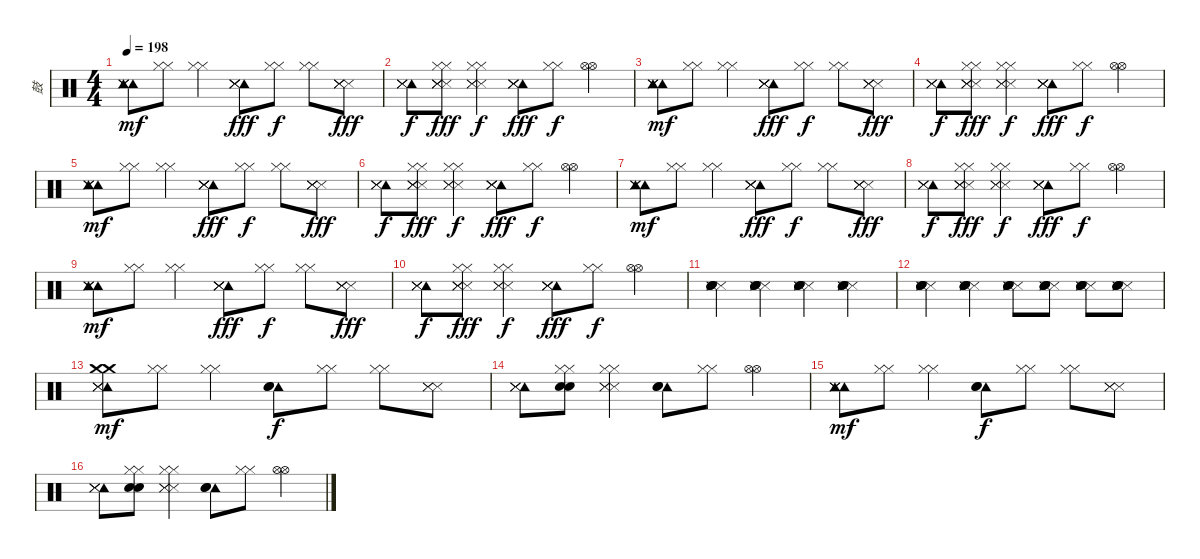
\track ("鼓" "鼓") {instrument percussion}
\staff {score}
\articulation defaults
\ts (4 4)
\tempo 198
\clef neutral
\ks c
("Tambourine (hit)" "Tambourine (hit)" "Metronome (hit)" "Metronome (hit)" "Metronome (hit)").8{dy mf} ("Hi-Hat (closed)" "Hi-Hat (closed)").8 ("Hi-Hat (closed)" "Hi-Hat (closed)").4 ("Tambourine (hit)" "Snare (side stick) 3" "Snare (side stick) 3" "Snare (side stick) 3" "Snare (side stick) 3").8{dy fff} ("Hi-Hat (closed)" "Hi-Hat (closed)").8{dy f} ("Hi-Hat (closed)" "Hi-Hat (closed)").8 ("Snare (side stick) 3" "Snare (side stick) 3" "Snare (side stick) 3" "Snare (side stick) 3").8{dy fff} |
("Tambourine (hit)" "Metronome (hit)" "Metronome (hit)" "Metronome (hit)").8{dy f} ("Hi-Hat (closed)" "Hi-Hat (closed)" "Snare (side stick) 3" "Snare (side stick) 3" "Snare (side stick) 3" "Snare (side stick) 3").8{dy fff} ("Hi-Hat (closed)" "Hi-Hat (closed)" "Metronome (hit)" "Metronome (hit)" "Metronome (hit)").4{dy f} ("Tambourine (hit)" "Snare (side stick) 3" "Snare (side stick) 3" "Snare (side stick) 3" "Snare (side stick) 3").8{dy fff} ("Hi-Hat (closed)" "Hi-Hat (closed)").8{dy f} ("Hi-Hat (open)" "Hi-Hat (open)").4 |
("Tambourine (hit)" "Tambourine (hit)" "Metronome (hit)" "Metronome (hit)" "Metronome (hit)").8{dy mf} ("Hi-Hat (closed)" "Hi-Hat (closed)").8 ("Hi-Hat (closed)" "Hi-Hat (closed)").4 ("Tambourine (hit)" "Snare (side stick) 3" "Snare (side stick) 3" "Snare (side stick) 3" "Snare (side stick) 3").8{dy fff} ("Hi-Hat (closed)" "Hi-Hat (closed)").8{dy f} ("Hi-Hat (closed)" "Hi-Hat (closed)").8 ("Snare (side stick) 3" "Snare (side stick) 3" "Snare (side stick) 3" "Snare (side stick) 3").8{dy fff} |
("Tambourine (hit)" "Metronome (hit)" "Metronome (hit)" "Metronome (hit)").8{dy f} ("Hi-Hat (closed)" "Hi-Hat (closed)" "Snare (side stick) 3" "Snare (side stick) 3" "Snare (side stick) 3" "Snare (side stick) 3").8{dy fff} ("Hi-Hat (closed)" "Hi-Hat (closed)" "Metronome (hit)" "Metronome (hit)" "Metronome (hit)").4{dy f} ("Tambourine (hit)" "Snare (side stick) 3" "Snare (side stick) 3" "Snare (side stick) 3" "Snare (side stick) 3").8{dy fff} ("Hi-Hat (closed)" "Hi-Hat (closed)").8{dy f} ("Hi-Hat (open)" "Hi-Hat (open)").4 |
("Tambourine (hit)" "Tambourine (hit)" "Metronome (hit)" "Metronome (hit)" "Metronome (hit)").8{dy mf} ("Hi-Hat (closed)" "Hi-Hat (closed)").8 ("Hi-Hat (closed)" "Hi-Hat (closed)").4 ("Tambourine (hit)" "Snare (side stick) 3" "Snare (side stick) 3" "Snare (side stick) 3" "Snare (side stick) 3").8{dy fff} ("Hi-Hat (closed)" "Hi-Hat (closed)").8{dy f} ("Hi-Hat (closed)" "Hi-Hat (closed)").8 ("Snare (side stick) 3" "Snare (side stick) 3" "Snare (side stick) 3" "Snare (side stick) 3").8{dy fff} |
("Tambourine (hit)" "Metronome (hit)" "Metronome (hit)" "Metronome (hit)").8{dy f} ("Hi-Hat (closed)" "Hi-Hat (closed)" "Snare (side stick) 3" "Snare (side stick) 3" "Snare (side stick) 3" "Snare (side stick) 3").8{dy fff} ("Hi-Hat (closed)" "Hi-Hat (closed)" "Metronome (hit)" "Metronome (hit)" "Metronome (hit)").4{dy f} ("Tambourine (hit)" "Snare (side stick) 3" "Snare (side stick) 3" "Snare (side stick) 3" "Snare (side stick) 3").8{dy fff} ("Hi-Hat (closed)" "Hi-Hat (closed)").8{dy f} ("Hi-Hat (open)" "Hi-Hat (open)").4 |
("Tambourine (hit)" "Tambourine (hit)" "Metronome (hit)" "Metronome (hit)" "Metronome (hit)").8{dy mf} ("Hi-Hat (closed)" "Hi-Hat (closed)").8 ("Hi-Hat (closed)" "Hi-Hat (closed)").4 ("Tambourine (hit)" "Snare (side stick) 3" "Snare (side stick) 3" "Snare (side stick) 3" "Snare (side stick) 3").8{dy fff} ("Hi-Hat (closed)" "Hi-Hat (closed)").8{dy f} ("Hi-Hat (closed)" "Hi-Hat (closed)").8 ("Snare (side stick) 3" "Snare (side stick) 3" "Snare (side stick) 3" "Snare (side stick) 3").8{dy fff} |
("Tambourine (hit)" "Metronome (hit)" "Metronome (hit)" "Metronome (hit)").8{dy f} ("Hi-Hat (closed)" "Hi-Hat (closed)" "Snare (side stick) 3" "Snare (side stick) 3" "Snare (side stick) 3" "Snare (side stick) 3").8{dy fff} ("Hi-Hat (closed)" "Hi-Hat (closed)" "Metronome (hit)" "Metronome (hit)" "Metronome (hit)").4{dy f} ("Tambourine (hit)" "Snare (side stick) 3" "Snare (side stick) 3" "Snare (side stick) 3" "Snare (side stick) 3").8{dy fff} ("Hi-Hat (closed)" "Hi-Hat (closed)").8{dy f} ("Hi-Hat (open)" "Hi-Hat (open)").4 |
("Tambourine (hit)" "Tambourine (hit)" "Metronome (hit)" "Metronome (hit)" "Metronome (hit)").8{dy mf} ("Hi-Hat (closed)" "Hi-Hat (closed)").8 ("Hi-Hat (closed)" "Hi-Hat (closed)").4 ("Tambourine (hit)" "Snare (side stick) 3" "Snare (side stick) 3" "Snare (side stick) 3" "Snare (side stick) 3").8{dy fff} ("Hi-Hat (closed)" "Hi-Hat (closed)").8{dy f} ("Hi-Hat (closed)" "Hi-Hat (closed)").8 ("Snare (side stick) 3" "Snare (side stick) 3" "Snare (side stick) 3" "Snare (side stick) 3").8{dy fff} |
("Tambourine (hit)" "Metronome (hit)" "Metronome (hit)" "Metronome (hit)").8{dy f} ("Hi-Hat (closed)" "Hi-Hat (closed)" "Snare (side stick) 3" "Snare (side stick) 3" "Snare (side stick) 3" "Snare (side stick) 3").8{dy fff} ("Hi-Hat (closed)" "Hi-Hat (closed)" "Metronome (hit)" "Metronome (hit)" "Metronome (hit)").4{dy f} ("Tambourine (hit)" "Snare (side stick) 3" "Snare (side stick) 3" "Snare (side stick) 3" "Snare (side stick) 3").8{dy fff} ("Hi-Hat (closed)" "Hi-Hat (closed)").8{dy f} ("Hi-Hat (open)" "Hi-Hat (open)").4 |
("Metronome (hit)" "Metronome (hit)" "Metronome (bell)" "Snare (hit) 2" "Metronome (hit)" "Metronome (bell)").4 ("Metronome (hit)" "Metronome (hit)" "Metronome (bell)" "Snare (hit) 2" "Metronome (hit)" "Metronome (bell)").4 ("Metronome (hit)" "Metronome (hit)" "Metronome (bell)" "Snare (hit) 2" "Metronome (hit)" "Metronome (bell)").4 ("Metronome (hit)" "Metronome (hit)" "Metronome (bell)" "Snare (hit) 2" "Metronome (hit)" "Metronome (bell)").4 |
("Metronome (hit)" "Metronome (hit)" "Metronome (bell)" "Snare (hit) 2" "Metronome (hit)" "Metronome (bell)").4 ("Metronome (hit)" "Metronome (hit)" "Metronome (bell)" "Snare (hit) 2" "Metronome (hit)" "Metronome (bell)").4 ("Metronome (hit)" "Metronome (hit)" "Metronome (bell)" "Snare (hit) 2" "Metronome (hit)" "Metronome (bell)").8 ("Metronome (hit)" "Metronome (hit)" "Metronome (bell)" "Snare (hit) 2" "Metronome (hit)" "Metronome (bell)").8 ("Metronome (hit)" "Metronome (hit)" "Metronome (bell)" "Snare (hit) 2" "Metronome (hit)" "Metronome (bell)").8 ("Metronome (hit)" "Metronome (hit)" "Metronome (bell)" "Snare (hit) 2" "Metronome (hit)" "Metronome (bell)").8 |
("Crash medium (hit)" "Tambourine (hit)" "Metronome (hit)" "Metronome (hit)" "Metronome (hit)" "Crash medium (hit)").8{dy mf} ("Hi-Hat (closed)" "Hi-Hat (closed)").8 ("Hi-Hat (closed)" "Hi-Hat (closed)").4 ("Tambourine (hit)" "Metronome (bell)" "Metronome (bell)").8{dy f} ("Hi-Hat (closed)" "Hi-Hat (closed)").8 ("Hi-Hat (closed)" "Hi-Hat (closed)").8 ("Metronome (hit)" "Metronome (hit)" "Metronome (hit)").8 |
("Tambourine (hit)" "Metronome (hit)" "Metronome (hit)" "Metronome (hit)").8 ("Hi-Hat (closed)" "Hi-Hat (closed)" "Metronome (bell)" "Metronome (bell)").8 ("Hi-Hat (closed)" "Hi-Hat (closed)" "Metronome (hit)" "Metronome (hit)" "Metronome (hit)").4 ("Tambourine (hit)" "Metronome (bell)" "Metronome (bell)").8 ("Hi-Hat (closed)" "Hi-Hat (closed)").8 ("Hi-Hat (open)" "Hi-Hat (open)").4 |
("Tambourine (hit)" "Tambourine (hit)" "Metronome (hit)" "Metronome (hit)" "Metronome (hit)").8{dy mf} ("Hi-Hat (closed)" "Hi-Hat (closed)").8 ("Hi-Hat (closed)" "Hi-Hat (closed)").4 ("Tambourine (hit)" "Metronome (bell)" "Metronome (bell)").8{dy f} ("Hi-Hat (closed)" "Hi-Hat (closed)").8 ("Hi-Hat (closed)" "Hi-Hat (closed)").8 ("Metronome (hit)" "Metronome (hit)" "Metronome (hit)").8 |
("Tambourine (hit)" "Metronome (hit)" "Metronome (hit)" "Metronome (hit)").8 ("Hi-Hat (closed)" "Hi-Hat (closed)" "Metronome (bell)" "Metronome (bell)").8 ("Hi-Hat (closed)" "Hi-Hat (closed)" "Metronome (hit)" "Metronome (hit)" "Metronome (hit)").4 ("Tambourine (hit)" "Metronome (bell)" "Metronome (bell)").8 ("Hi-Hat (closed)" "Hi-Hat (closed)").8 ("Hi-Hat (open)" "Hi-Hat (open)").4
